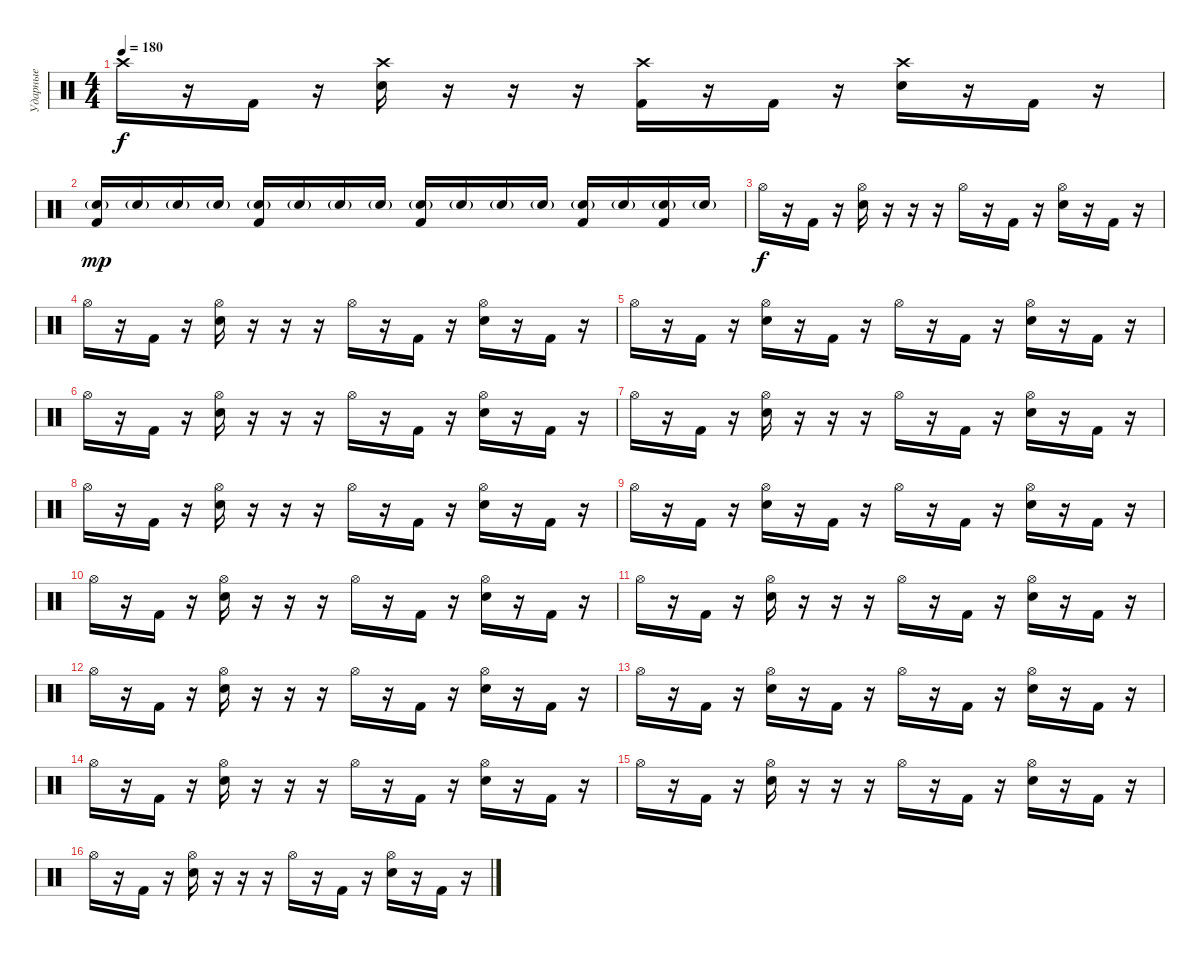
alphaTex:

\track ("Ударные" "Ударные") {instrument percussion}
\staff {score}
\articulation defaults
\ts (4 4)
\tempo 180
\clef neutral
\ks c "Crash high (hit)".16{dy f}
r.16 "Kick (hit) 2".16 r.16 ("Crash high (hit)" "Electric Snare (hit)").16 r.16 r.16 r.16 ("Crash high (hit)" "Kick (hit) 2").16 r.16 "Kick (hit) 2".16 r.16 ("Crash high (hit)" "Electric Snare (hit)").16 r.16 "Kick (hit) 2".16 r.16 |
("Electric Snare (hit)"{g} "Kick (hit) 2").16{dy mp} "Electric Snare (hit)"{g}.16 "Electric Snare (hit)"{g}.16 "Electric Snare (hit)"{g}.16 ("Electric Snare (hit)"{g} "Kick (hit) 2").16 "Electric Snare (hit)"{g}.16 "Electric Snare (hit)"{g}.16 "Electric Snare (hit)"{g}.16 ("Electric Snare (hit)"{g} "Kick (hit) 2").16 "Electric Snare (hit)"{g}.16 "Electric Snare (hit)"{g}.16 "Electric Snare (hit)"{g}.16 ("Electric Snare (hit)"{g} "Kick (hit) 2").16 "Electric Snare (hit)"{g}.16 ("Electric Snare (hit)"{g} "Kick (hit) 2").16 "Electric Snare (hit)"{g}.16 |
"Hi-Hat (open)".16{dy f} r.16 "Kick (hit) 2".16 r.16 ("Hi-Hat (open)" "Electric Snare (hit)").16 r.16 r.16 r.16 "Hi-Hat (open)".16 r.16 "Kick (hit) 2".16 r.16 ("Hi-Hat (open)" "Electric Snare (hit)").16 r.16 "Kick (hit) 2".16 r.16 |
"Hi-Hat (open)".16 r.16 "Kick (hit) 2".16 r.16 ("Hi-Hat (open)" "Electric Snare (hit)").16 r.16 r.16 r.16 "Hi-Hat (open)".16 r.16 "Kick (hit) 2".16 r.16 ("Hi-Hat (open)" "Electric Snare (hit)").16 r.16 "Kick (hit) 2".16 r.16 |
"Hi-Hat (open)".16 r.16 "Kick (hit) 2".16 r.16 ("Hi-Hat (open)" "Electric Snare (hit)").16 r.16 "Kick (hit) 2".16 r.16 "Hi-Hat (open)".16 r.16 "Kick (hit) 2".16 r.16 ("Hi-Hat (open)" "Electric Snare (hit)").16 r.16 "Kick (hit) 2".16 r.16 |
"Hi-Hat (open)".16 r.16 "Kick (hit) 2".16 r.16 ("Hi-Hat (open)" "Electric Snare (hit)").16 r.16 r.16 r.16 "Hi-Hat (open)".16 r.16 "Kick (hit) 2".16 r.16 ("Hi-Hat (open)" "Electric Snare (hit)").16 r.16 "Kick (hit) 2".16 r.16 |
"Hi-Hat (open)".16 r.16 "Kick (hit) 2".16 r.16 ("Hi-Hat (open)" "Electric Snare (hit)").16 r.16 r.16 r.16 "Hi-Hat (open)".16 r.16 "Kick (hit) 2".16 r.16 ("Hi-Hat (open)" "Electric Snare (hit)").16 r.16 "Kick (hit) 2".16 r.16 |
"Hi-Hat (open)".16 r.16 "Kick (hit) 2".16 r.16 ("Hi-Hat (open)" "Electric Snare (hit)").16 r.16 r.16 r.16 "Hi-Hat (open)".16 r.16 "Kick (hit) 2".16 r.16 ("Hi-Hat (open)" "Electric Snare (hit)").16 r.16 "Kick (hit) 2".16 r.16 |
"Hi-Hat (open)".16 r.16 "Kick (hit) 2".16 r.16 ("Hi-Hat (open)" "Electric Snare (hit)").16 r.16 "Kick (hit) 2".16 r.16 "Hi-Hat (open)".16 r.16 "Kick (hit) 2".16 r.16 ("Hi-Hat (open)" "Electric Snare (hit)").16 r.16 "Kick (hit) 2".16 r.16 |
"Hi-Hat (open)".16 r.16 "Kick (hit) 2".16 r.16 ("Hi-Hat (open)" "Electric Snare (hit)").16 r.16 r.16 r.16 "Hi-Hat (open)".16 r.16 "Kick (hit) 2".16 r.16 ("Hi-Hat (open)" "Electric Snare (hit)").16 r.16 "Kick (hit) 2".16 r.16 |
"Hi-Hat (open)".16 r.16 "Kick (hit) 2".16 r.16 ("Hi-Hat (open)" "Electric Snare (hit)").16 r.16 r.16 r.16 "Hi-Hat (open)".16 r.16 "Kick (hit) 2".16 r.16 ("Hi-Hat (open)" "Electric Snare (hit)").16 r.16 "Kick (hit) 2".16 r.16 |
"Hi-Hat (open)".16 r.16 "Kick (hit) 2".16 r.16 ("Hi-Hat (open)" "Electric Snare (hit)").16 r.16 r.16 r.16 "Hi-Hat (open)".16 r.16 "Kick (hit) 2".16 r.16 ("Hi-Hat (open)" "Electric Snare (hit)").16 r.16 "Kick (hit) 2".16 r.16 |
"Hi-Hat (open)".16 r.16 "Kick (hit) 2".16 r.16 ("Hi-Hat (open)" "Electric Snare (hit)").16 r.16 "Kick (hit) 2".16 r.16 "Hi-Hat (open)".16 r.16 "Kick (hit) 2".16 r.16 ("Hi-Hat (open)" "Electric Snare (hit)").16 r.16 "Kick (hit) 2".16 r.16 |
"Hi-Hat (open)".16 r.16 "Kick (hit) 2".16 r.16 ("Hi-Hat (open)" "Electric Snare (hit)").16 r.16 r.16 r.16 "Hi-Hat (open)".16 r.16 "Kick (hit) 2".16 r.16 ("Hi-Hat (open)" "Electric Snare (hit)").16 r.16 "Kick (hit) 2".16 r.16 |
"Hi-Hat (open)".16 r.16 "Kick (hit) 2".16 r.16 ("Hi-Hat (open)" "Electric Snare (hit)").16 r.16 r.16 r.16 "Hi-Hat (open)".16 r.16 "Kick (hit) 2".16 r.16 ("Hi-Hat (open)" "Electric Snare (hit)").16 r.16 "Kick (hit) 2".16 r.16 |
"Hi-Hat (open)".16 r.16 "Kick (hit) 2".16 r.16 ("Hi-Hat (open)" "Electric Snare (hit)").16 r.16 r.16 r.16 "Hi-Hat (open)".16 r.16 "Kick (hit) 2".16 r.16 ("Hi-Hat (open)" "Electric Snare (hit)").16 r.16 "Kick (hit) 2".16 r.16
